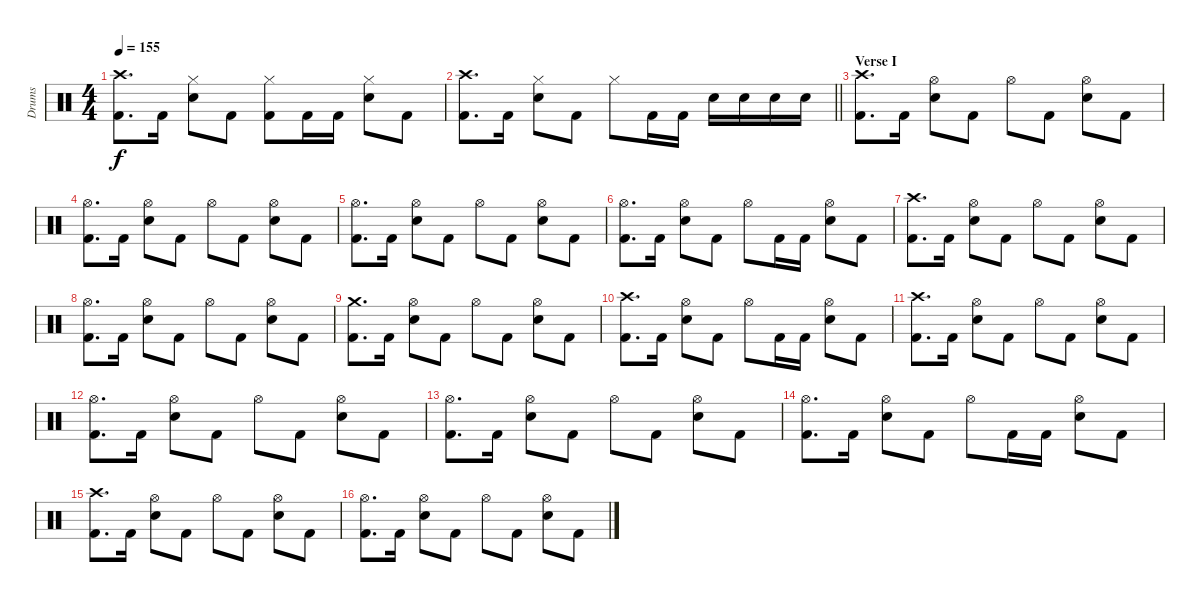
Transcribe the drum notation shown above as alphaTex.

\track ("Drums" "Drums") {instrument percussion}
\staff {score}
\articulation defaults
\ts (4 4)
\tempo 155
\clef neutral
\ks c
("Crash high (hit)" "Kick (hit) 2").8{d dy f} "Kick (hit) 2".16 ("Hi-Hat (closed)" "Snare (hit) 2").8 "Kick (hit) 2".8 ("Hi-Hat (closed)" "Kick (hit) 2").8 "Kick (hit) 2".16 "Kick (hit) 2".16 ("Hi-Hat (closed)" "Snare (hit) 2").8 "Kick (hit) 2".8 |
\barLineRight lightlight
("Crash high (hit)" "Kick (hit) 2").8{d} "Kick (hit) 2".16 ("Hi-Hat (closed)" "Snare (hit) 2").8 "Kick (hit) 2".8 "Hi-Hat (closed)".8 "Kick (hit) 2".16 "Kick (hit) 2".16 "Snare (hit) 2".16 "Snare (hit) 2".16 "Snare (hit) 2".16 "Snare (hit) 2".16 |
\section ("" "Verse I")
("Crash high (hit)" "Kick (hit) 2").8{d} "Kick (hit) 2".16 ("Hi-Hat (open)" "Snare (hit) 2").8 "Kick (hit) 2".8 "Hi-Hat (open)".8 "Kick (hit) 2".8 ("Hi-Hat (open)" "Snare (hit) 2").8 "Kick (hit) 2".8 |
("Hi-Hat (open)" "Kick (hit) 2").8{d} "Kick (hit) 2".16 ("Hi-Hat (open)" "Snare (hit) 2").8 "Kick (hit) 2".8 "Hi-Hat (open)".8 "Kick (hit) 2".8 ("Hi-Hat (open)" "Snare (hit) 2").8 "Kick (hit) 2".8 |
("Hi-Hat (open)" "Kick (hit) 2").8{d} "Kick (hit) 2".16 ("Hi-Hat (open)" "Snare (hit) 2").8 "Kick (hit) 2".8 "Hi-Hat (open)".8 "Kick (hit) 2".8 ("Hi-Hat (open)" "Snare (hit) 2").8 "Kick (hit) 2".8 |
("Hi-Hat (open)" "Kick (hit) 2").8{d} "Kick (hit) 2".16 ("Hi-Hat (open)" "Snare (hit) 2").8 "Kick (hit) 2".8 "Hi-Hat (open)".8 "Kick (hit) 2".16 "Kick (hit) 2".16 ("Hi-Hat (open)" "Snare (hit) 2").8 "Kick (hit) 2".8 |
("Crash high (hit)" "Kick (hit) 2").8{d} "Kick (hit) 2".16 ("Hi-Hat (open)" "Snare (hit) 2").8 "Kick (hit) 2".8 "Hi-Hat (open)".8 "Kick (hit) 2".8 ("Hi-Hat (open)" "Snare (hit) 2").8 "Kick (hit) 2".8 |
("Hi-Hat (open)" "Kick (hit) 2").8{d} "Kick (hit) 2".16 ("Hi-Hat (open)" "Snare (hit) 2").8 "Kick (hit) 2".8 "Hi-Hat (open)".8 "Kick (hit) 2".8 ("Hi-Hat (open)" "Snare (hit) 2").8 "Kick (hit) 2".8 |
("Crash medium (hit)" "Kick (hit) 2").8{d} "Kick (hit) 2".16 ("Hi-Hat (open)" "Snare (hit) 2").8 "Kick (hit) 2".8 "Hi-Hat (open)".8 "Kick (hit) 2".8 ("Hi-Hat (open)" "Snare (hit) 2").8 "Kick (hit) 2".8 |
("Crash high (hit)" "Kick (hit) 2").8{d} "Kick (hit) 2".16 ("Hi-Hat (open)" "Snare (hit) 2").8 "Kick (hit) 2".8 "Hi-Hat (open)".8 "Kick (hit) 2".16 "Kick (hit) 2".16 ("Hi-Hat (open)" "Snare (hit) 2").8 "Kick (hit) 2".8 |
("Crash high (hit)" "Kick (hit) 2").8{d} "Kick (hit) 2".16 ("Hi-Hat (open)" "Snare (hit) 2").8 "Kick (hit) 2".8 "Hi-Hat (open)".8 "Kick (hit) 2".8 ("Hi-Hat (open)" "Snare (hit) 2").8 "Kick (hit) 2".8 |
("Hi-Hat (open)" "Kick (hit) 2").8{d} "Kick (hit) 2".16 ("Hi-Hat (open)" "Snare (hit) 2").8 "Kick (hit) 2".8 "Hi-Hat (open)".8 "Kick (hit) 2".8 ("Hi-Hat (open)" "Snare (hit) 2").8 "Kick (hit) 2".8 |
("Hi-Hat (open)" "Kick (hit) 2").8{d} "Kick (hit) 2".16 ("Hi-Hat (open)" "Snare (hit) 2").8 "Kick (hit) 2".8 "Hi-Hat (open)".8 "Kick (hit) 2".8 ("Hi-Hat (open)" "Snare (hit) 2").8 "Kick (hit) 2".8 |
("Hi-Hat (open)" "Kick (hit) 2").8{d} "Kick (hit) 2".16 ("Hi-Hat (open)" "Snare (hit) 2").8 "Kick (hit) 2".8 "Hi-Hat (open)".8 "Kick (hit) 2".16 "Kick (hit) 2".16 ("Hi-Hat (open)" "Snare (hit) 2").8 "Kick (hit) 2".8 |
("Crash high (hit)" "Kick (hit) 2").8{d} "Kick (hit) 2".16 ("Hi-Hat (open)" "Snare (hit) 2").8 "Kick (hit) 2".8 "Hi-Hat (open)".8 "Kick (hit) 2".8 ("Hi-Hat (open)" "Snare (hit) 2").8 "Kick (hit) 2".8 |
("Hi-Hat (open)" "Kick (hit) 2").8{d} "Kick (hit) 2".16 ("Hi-Hat (open)" "Snare (hit) 2").8 "Kick (hit) 2".8 "Hi-Hat (open)".8 "Kick (hit) 2".8 ("Hi-Hat (open)" "Snare (hit) 2").8 "Kick (hit) 2".8
